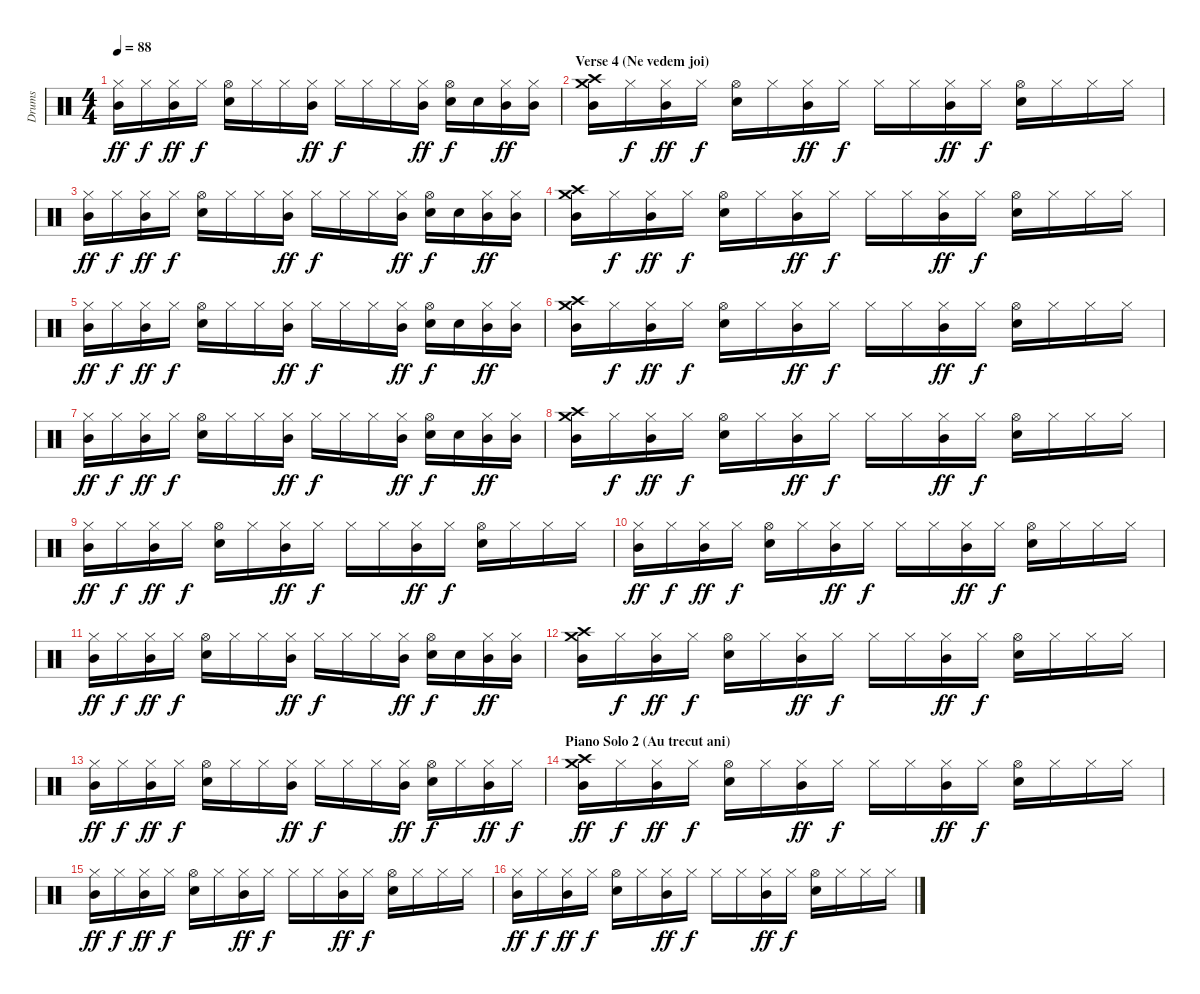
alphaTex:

\track ("Drums" "Drums") {instrument percussion}
\staff {score}
\articulation defaults
\ts (4 4)
\tempo 88
\clef neutral
\ks c
("Hi-Hat (closed)" "Mid Tom (hit)").16{dy ff} "Hi-Hat (closed)".16{dy f} ("Hi-Hat (closed)" "Mid Tom (hit)").16{dy ff} "Hi-Hat (closed)".16{dy f} ("Hi-Hat (open)" "Electric Snare (hit)").16 "Hi-Hat (closed)".16 "Hi-Hat (closed)".16 ("Hi-Hat (closed)" "Mid Tom (hit)").16{dy ff} "Hi-Hat (closed)".16{dy f} "Hi-Hat (closed)".16 "Hi-Hat (closed)".16 ("Hi-Hat (closed)" "Mid Tom (hit)").16{dy ff} ("Hi-Hat (open)" "Electric Snare (hit)").16{dy f} "Electric Snare (hit)".16 ("Hi-Hat (closed)" "Mid Tom (hit)").16{dy ff} ("Hi-Hat (closed)" "Mid Tom (hit)").16 |
\section ("" "Verse 4 (Ne vedem joi)")
("Crash medium (hit)" "Crash high (hit)" "Mid Tom (hit)").16 "Hi-Hat (closed)".16{dy f} ("Hi-Hat (closed)" "Mid Tom (hit)").16{dy ff} "Hi-Hat (closed)".16{dy f} ("Hi-Hat (open)" "Electric Snare (hit)").16 "Hi-Hat (closed)".16 ("Hi-Hat (closed)" "Mid Tom (hit)").16{dy ff} "Hi-Hat (closed)".16{dy f} "Hi-Hat (closed)".16 "Hi-Hat (closed)".16 ("Hi-Hat (closed)" "Mid Tom (hit)").16{dy ff} "Hi-Hat (closed)".16{dy f} ("Hi-Hat (open)" "Electric Snare (hit)").16 "Hi-Hat (closed)".16 "Hi-Hat (closed)".16 "Hi-Hat (closed)".16 |
("Hi-Hat (closed)" "Mid Tom (hit)").16{dy ff} "Hi-Hat (closed)".16{dy f} ("Hi-Hat (closed)" "Mid Tom (hit)").16{dy ff} "Hi-Hat (closed)".16{dy f} ("Hi-Hat (open)" "Electric Snare (hit)").16 "Hi-Hat (closed)".16 "Hi-Hat (closed)".16 ("Hi-Hat (closed)" "Mid Tom (hit)").16{dy ff} "Hi-Hat (closed)".16{dy f} "Hi-Hat (closed)".16 "Hi-Hat (closed)".16 ("Hi-Hat (closed)" "Mid Tom (hit)").16{dy ff} ("Hi-Hat (open)" "Electric Snare (hit)").16{dy f} "Electric Snare (hit)".16 ("Hi-Hat (closed)" "Mid Tom (hit)").16{dy ff} ("Hi-Hat (closed)" "Mid Tom (hit)").16 |
("Crash medium (hit)" "Crash high (hit)" "Mid Tom (hit)").16 "Hi-Hat (closed)".16{dy f} ("Hi-Hat (closed)" "Mid Tom (hit)").16{dy ff} "Hi-Hat (closed)".16{dy f} ("Hi-Hat (open)" "Electric Snare (hit)").16 "Hi-Hat (closed)".16 ("Hi-Hat (closed)" "Mid Tom (hit)").16{dy ff} "Hi-Hat (closed)".16{dy f} "Hi-Hat (closed)".16 "Hi-Hat (closed)".16 ("Hi-Hat (closed)" "Mid Tom (hit)").16{dy ff} "Hi-Hat (closed)".16{dy f} ("Hi-Hat (open)" "Electric Snare (hit)").16 "Hi-Hat (closed)".16 "Hi-Hat (closed)".16 "Hi-Hat (closed)".16 |
("Hi-Hat (closed)" "Mid Tom (hit)").16{dy ff} "Hi-Hat (closed)".16{dy f} ("Hi-Hat (closed)" "Mid Tom (hit)").16{dy ff} "Hi-Hat (closed)".16{dy f} ("Hi-Hat (open)" "Electric Snare (hit)").16 "Hi-Hat (closed)".16 "Hi-Hat (closed)".16 ("Hi-Hat (closed)" "Mid Tom (hit)").16{dy ff} "Hi-Hat (closed)".16{dy f} "Hi-Hat (closed)".16 "Hi-Hat (closed)".16 ("Hi-Hat (closed)" "Mid Tom (hit)").16{dy ff} ("Hi-Hat (open)" "Electric Snare (hit)").16{dy f} "Electric Snare (hit)".16 ("Hi-Hat (closed)" "Mid Tom (hit)").16{dy ff} ("Hi-Hat (closed)" "Mid Tom (hit)").16 |
("Crash medium (hit)" "Crash high (hit)" "Mid Tom (hit)").16 "Hi-Hat (closed)".16{dy f} ("Hi-Hat (closed)" "Mid Tom (hit)").16{dy ff} "Hi-Hat (closed)".16{dy f} ("Hi-Hat (open)" "Electric Snare (hit)").16 "Hi-Hat (closed)".16 ("Hi-Hat (closed)" "Mid Tom (hit)").16{dy ff} "Hi-Hat (closed)".16{dy f} "Hi-Hat (closed)".16 "Hi-Hat (closed)".16 ("Hi-Hat (closed)" "Mid Tom (hit)").16{dy ff} "Hi-Hat (closed)".16{dy f} ("Hi-Hat (open)" "Electric Snare (hit)").16 "Hi-Hat (closed)".16 "Hi-Hat (closed)".16 "Hi-Hat (closed)".16 |
("Hi-Hat (closed)" "Mid Tom (hit)").16{dy ff} "Hi-Hat (closed)".16{dy f} ("Hi-Hat (closed)" "Mid Tom (hit)").16{dy ff} "Hi-Hat (closed)".16{dy f} ("Hi-Hat (open)" "Electric Snare (hit)").16 "Hi-Hat (closed)".16 "Hi-Hat (closed)".16 ("Hi-Hat (closed)" "Mid Tom (hit)").16{dy ff} "Hi-Hat (closed)".16{dy f} "Hi-Hat (closed)".16 "Hi-Hat (closed)".16 ("Hi-Hat (closed)" "Mid Tom (hit)").16{dy ff} ("Hi-Hat (open)" "Electric Snare (hit)").16{dy f} "Electric Snare (hit)".16 ("Hi-Hat (closed)" "Mid Tom (hit)").16{dy ff} ("Hi-Hat (closed)" "Mid Tom (hit)").16 |
("Crash medium (hit)" "Crash high (hit)" "Mid Tom (hit)").16 "Hi-Hat (closed)".16{dy f} ("Hi-Hat (closed)" "Mid Tom (hit)").16{dy ff} "Hi-Hat (closed)".16{dy f} ("Hi-Hat (open)" "Electric Snare (hit)").16 "Hi-Hat (closed)".16 ("Hi-Hat (closed)" "Mid Tom (hit)").16{dy ff} "Hi-Hat (closed)".16{dy f} "Hi-Hat (closed)".16 "Hi-Hat (closed)".16 ("Hi-Hat (closed)" "Mid Tom (hit)").16{dy ff} "Hi-Hat (closed)".16{dy f} ("Hi-Hat (open)" "Electric Snare (hit)").16 "Hi-Hat (closed)".16 "Hi-Hat (closed)".16 "Hi-Hat (closed)".16 |
("Hi-Hat (closed)" "Mid Tom (hit)").16{dy ff} "Hi-Hat (closed)".16{dy f} ("Hi-Hat (closed)" "Mid Tom (hit)").16{dy ff} "Hi-Hat (closed)".16{dy f} ("Hi-Hat (open)" "Electric Snare (hit)").16 "Hi-Hat (closed)".16 ("Hi-Hat (closed)" "Mid Tom (hit)").16{dy ff} "Hi-Hat (closed)".16{dy f} "Hi-Hat (closed)".16 "Hi-Hat (closed)".16 ("Hi-Hat (closed)" "Mid Tom (hit)").16{dy ff} "Hi-Hat (closed)".16{dy f} ("Hi-Hat (open)" "Electric Snare (hit)").16 "Hi-Hat (closed)".16 "Hi-Hat (closed)".16 "Hi-Hat (closed)".16 |
("Hi-Hat (closed)" "Mid Tom (hit)").16{dy ff} "Hi-Hat (closed)".16{dy f} ("Hi-Hat (closed)" "Mid Tom (hit)").16{dy ff} "Hi-Hat (closed)".16{dy f} ("Hi-Hat (open)" "Electric Snare (hit)").16 "Hi-Hat (closed)".16 ("Hi-Hat (closed)" "Mid Tom (hit)").16{dy ff} "Hi-Hat (closed)".16{dy f} "Hi-Hat (closed)".16 "Hi-Hat (closed)".16 ("Hi-Hat (closed)" "Mid Tom (hit)").16{dy ff} "Hi-Hat (closed)".16{dy f} ("Hi-Hat (open)" "Electric Snare (hit)").16 "Hi-Hat (closed)".16 "Hi-Hat (closed)".16 "Hi-Hat (closed)".16 |
("Hi-Hat (closed)" "Mid Tom (hit)").16{dy ff} "Hi-Hat (closed)".16{dy f} ("Hi-Hat (closed)" "Mid Tom (hit)").16{dy ff} "Hi-Hat (closed)".16{dy f} ("Hi-Hat (open)" "Electric Snare (hit)").16 "Hi-Hat (closed)".16 "Hi-Hat (closed)".16 ("Hi-Hat (closed)" "Mid Tom (hit)").16{dy ff} "Hi-Hat (closed)".16{dy f} "Hi-Hat (closed)".16 "Hi-Hat (closed)".16 ("Hi-Hat (closed)" "Mid Tom (hit)").16{dy ff} ("Hi-Hat (open)" "Electric Snare (hit)").16{dy f} "Electric Snare (hit)".16 ("Hi-Hat (closed)" "Mid Tom (hit)").16{dy ff} ("Hi-Hat (closed)" "Mid Tom (hit)").16 |
("Crash medium (hit)" "Crash high (hit)" "Mid Tom (hit)").16 "Hi-Hat (closed)".16{dy f} ("Hi-Hat (closed)" "Mid Tom (hit)").16{dy ff} "Hi-Hat (closed)".16{dy f} ("Hi-Hat (open)" "Electric Snare (hit)").16 "Hi-Hat (closed)".16 ("Hi-Hat (closed)" "Mid Tom (hit)").16{dy ff} "Hi-Hat (closed)".16{dy f} "Hi-Hat (closed)".16 "Hi-Hat (closed)".16 ("Hi-Hat (closed)" "Mid Tom (hit)").16{dy ff} "Hi-Hat (closed)".16{dy f} ("Hi-Hat (open)" "Electric Snare (hit)").16 "Hi-Hat (closed)".16 "Hi-Hat (closed)".16 "Hi-Hat (closed)".16 |
("Hi-Hat (closed)" "Mid Tom (hit)").16{dy ff} "Hi-Hat (closed)".16{dy f} ("Hi-Hat (closed)" "Mid Tom (hit)").16{dy ff} "Hi-Hat (closed)".16{dy f} ("Hi-Hat (open)" "Electric Snare (hit)").16 "Hi-Hat (closed)".16 "Hi-Hat (closed)".16 ("Hi-Hat (closed)" "Mid Tom (hit)").16{dy ff} "Hi-Hat (closed)".16{dy f} "Hi-Hat (closed)".16 "Hi-Hat (closed)".16 ("Hi-Hat (closed)" "Mid Tom (hit)").16{dy ff} ("Hi-Hat (open)" "Electric Snare (hit)").16{dy f} "Hi-Hat (closed)".16 ("Hi-Hat (closed)" "Mid Tom (hit)").16{dy ff} "Hi-Hat (closed)".16{dy f} |
\section ("" "Piano Solo 2 (Au trecut ani)")
("Crash medium (hit)" "Crash high (hit)" "Mid Tom (hit)").16{dy ff} "Hi-Hat (closed)".16{dy f} ("Hi-Hat (closed)" "Mid Tom (hit)").16{dy ff} "Hi-Hat (closed)".16{dy f} ("Hi-Hat (open)" "Electric Snare (hit)").16 "Hi-Hat (closed)".16 ("Hi-Hat (closed)" "Mid Tom (hit)").16{dy ff} "Hi-Hat (closed)".16{dy f} "Hi-Hat (closed)".16 "Hi-Hat (closed)".16 ("Hi-Hat (closed)" "Mid Tom (hit)").16{dy ff} "Hi-Hat (closed)".16{dy f} ("Hi-Hat (open)" "Electric Snare (hit)").16 "Hi-Hat (closed)".16 "Hi-Hat (closed)".16 "Hi-Hat (closed)".16 |
("Hi-Hat (closed)" "Mid Tom (hit)").16{dy ff} "Hi-Hat (closed)".16{dy f} ("Hi-Hat (closed)" "Mid Tom (hit)").16{dy ff} "Hi-Hat (closed)".16{dy f} ("Hi-Hat (open)" "Electric Snare (hit)").16 "Hi-Hat (closed)".16 ("Hi-Hat (closed)" "Mid Tom (hit)").16{dy ff} "Hi-Hat (closed)".16{dy f} "Hi-Hat (closed)".16 "Hi-Hat (closed)".16 ("Hi-Hat (closed)" "Mid Tom (hit)").16{dy ff} "Hi-Hat (closed)".16{dy f} ("Hi-Hat (open)" "Electric Snare (hit)").16 "Hi-Hat (closed)".16 "Hi-Hat (closed)".16 "Hi-Hat (closed)".16 |
("Hi-Hat (closed)" "Mid Tom (hit)").16{dy ff} "Hi-Hat (closed)".16{dy f} ("Hi-Hat (closed)" "Mid Tom (hit)").16{dy ff} "Hi-Hat (closed)".16{dy f} ("Hi-Hat (open)" "Electric Snare (hit)").16 "Hi-Hat (closed)".16 ("Hi-Hat (closed)" "Mid Tom (hit)").16{dy ff} "Hi-Hat (closed)".16{dy f} "Hi-Hat (closed)".16 "Hi-Hat (closed)".16 ("Hi-Hat (closed)" "Mid Tom (hit)").16{dy ff} "Hi-Hat (closed)".16{dy f} ("Hi-Hat (open)" "Electric Snare (hit)").16 "Hi-Hat (closed)".16 "Hi-Hat (closed)".16 "Hi-Hat (closed)".16
